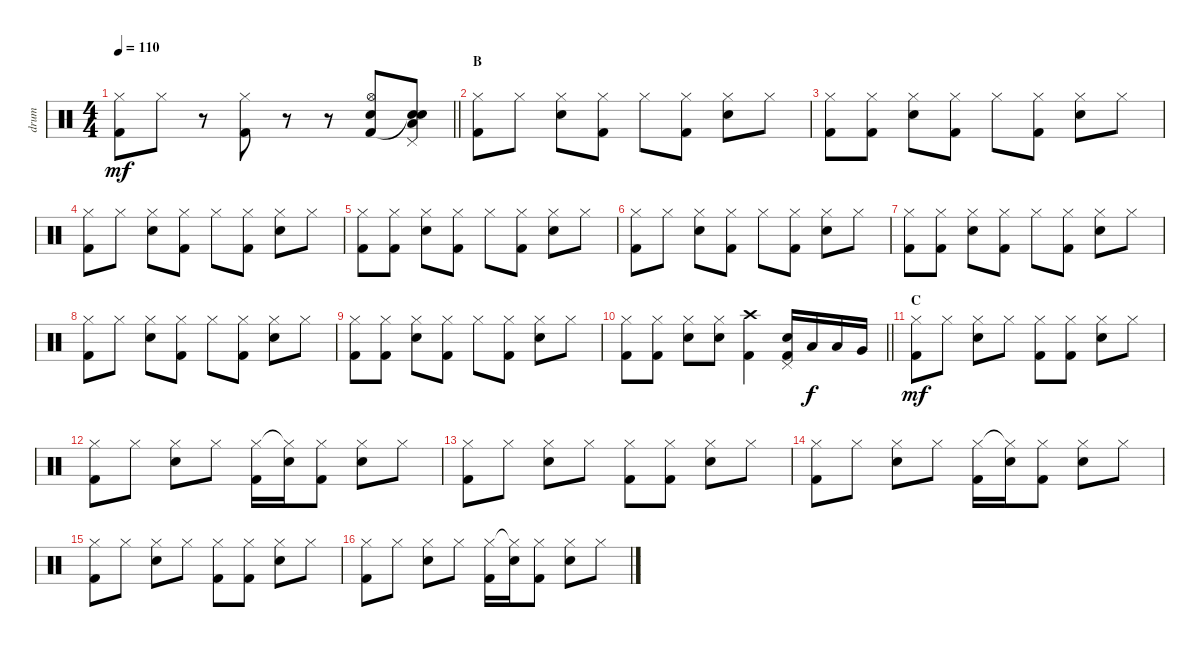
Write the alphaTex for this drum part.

\track ("drum" "drum") {instrument percussion}
\staff
\articulation defaults
\ts (4 4)
\tempo 110
\clef neutral
\barLineRight lightlight
\ks c
("Hi-Hat (closed)" "Kick (hit) 2").8{dy mf} "Hi-Hat (closed)".8 r.8 ("Hi-Hat (closed)" "Kick (hit) 2").8 r.8 r.8 ("Hi-Hat (open)" "Electric Snare (hit)" "Kick (hit) 2").8 ("Pedal Hi-Hat (hit)" "Low Floor Tom (hit)" "Snare (hit)"{t} "Snare (hit)").8 |
\section ("" "B")
("Hi-Hat (closed)" "Kick (hit) 2").8 "Hi-Hat (closed)".8 ("Hi-Hat (closed)" "Electric Snare (hit)").8 ("Hi-Hat (closed)" "Kick (hit) 2").8 "Hi-Hat (closed)".8 ("Hi-Hat (closed)" "Kick (hit) 2").8 ("Hi-Hat (closed)" "Electric Snare (hit)").8 "Hi-Hat (closed)".8 |
("Hi-Hat (closed)" "Kick (hit) 2").8 ("Hi-Hat (closed)" "Kick (hit) 2").8 ("Hi-Hat (closed)" "Electric Snare (hit)").8 ("Hi-Hat (closed)" "Kick (hit) 2").8 "Hi-Hat (closed)".8 ("Hi-Hat (closed)" "Kick (hit) 2").8 ("Hi-Hat (closed)" "Electric Snare (hit)").8 "Hi-Hat (closed)".8 |
("Hi-Hat (closed)" "Kick (hit) 2").8 "Hi-Hat (closed)".8 ("Hi-Hat (closed)" "Electric Snare (hit)").8 ("Hi-Hat (closed)" "Kick (hit) 2").8 "Hi-Hat (closed)".8 ("Hi-Hat (closed)" "Kick (hit) 2").8 ("Hi-Hat (closed)" "Electric Snare (hit)").8 "Hi-Hat (closed)".8 |
("Hi-Hat (closed)" "Kick (hit) 2").8 ("Hi-Hat (closed)" "Kick (hit) 2").8 ("Hi-Hat (closed)" "Electric Snare (hit)").8 ("Hi-Hat (closed)" "Kick (hit) 2").8 "Hi-Hat (closed)".8 ("Hi-Hat (closed)" "Kick (hit) 2").8 ("Hi-Hat (closed)" "Electric Snare (hit)").8 "Hi-Hat (closed)".8 |
("Hi-Hat (closed)" "Kick (hit) 2").8 "Hi-Hat (closed)".8 ("Hi-Hat (closed)" "Electric Snare (hit)").8 ("Hi-Hat (closed)" "Kick (hit) 2").8 "Hi-Hat (closed)".8 ("Hi-Hat (closed)" "Kick (hit) 2").8 ("Hi-Hat (closed)" "Electric Snare (hit)").8 "Hi-Hat (closed)".8 |
("Hi-Hat (closed)" "Kick (hit) 2").8 ("Hi-Hat (closed)" "Kick (hit) 2").8 ("Hi-Hat (closed)" "Electric Snare (hit)").8 ("Hi-Hat (closed)" "Kick (hit) 2").8 "Hi-Hat (closed)".8 ("Hi-Hat (closed)" "Kick (hit) 2").8 ("Hi-Hat (closed)" "Electric Snare (hit)").8 "Hi-Hat (closed)".8 |
("Hi-Hat (closed)" "Kick (hit) 2").8 "Hi-Hat (closed)".8 ("Hi-Hat (closed)" "Electric Snare (hit)").8 ("Hi-Hat (closed)" "Kick (hit) 2").8 "Hi-Hat (closed)".8 ("Hi-Hat (closed)" "Kick (hit) 2").8 ("Hi-Hat (closed)" "Electric Snare (hit)").8 "Hi-Hat (closed)".8 |
("Hi-Hat (closed)" "Kick (hit) 2").8 ("Hi-Hat (closed)" "Kick (hit) 2").8 ("Hi-Hat (closed)" "Electric Snare (hit)").8 ("Hi-Hat (closed)" "Kick (hit) 2").8 "Hi-Hat (closed)".8 ("Hi-Hat (closed)" "Kick (hit) 2").8 ("Hi-Hat (closed)" "Electric Snare (hit)").8 "Hi-Hat (closed)".8 |
\barLineRight lightlight
("Hi-Hat (closed)" "Kick (hit) 2").8 ("Hi-Hat (closed)" "Kick (hit) 2").8 ("Hi-Hat (closed)" "Electric Snare (hit)").8 ("Hi-Hat (closed)" "Electric Snare (hit)").8 ("Crash high (hit)" "Kick (hit) 2").4 ("Pedal Hi-Hat (hit)" "Electric Snare (hit)" "Kick (hit) 2").16 "Low Floor Tom (hit)".16{dy f} "Low Tom (hit)".16 "Very Low Tom (hit)".16 |
\section ("" "C")
("Hi-Hat (closed)" "Kick (hit) 2").8{dy mf} "Hi-Hat (closed)".8 ("Hi-Hat (closed)" "Electric Snare (hit)").8 "Hi-Hat (closed)".8 ("Hi-Hat (closed)" "Kick (hit) 2").8 ("Hi-Hat (closed)" "Kick (hit) 2").8 ("Hi-Hat (closed)" "Electric Snare (hit)").8 "Hi-Hat (closed)".8 |
("Hi-Hat (closed)" "Kick (hit) 2").8 "Hi-Hat (closed)".8 ("Hi-Hat (closed)" "Electric Snare (hit)").8 "Hi-Hat (closed)".8 ("Hi-Hat (closed)" "Kick (hit) 2").16 ("Hi-Hat (closed)"{t} "Electric Snare (hit)").16 ("Hi-Hat (closed)" "Kick (hit) 2").8 ("Hi-Hat (closed)" "Electric Snare (hit)").8 "Hi-Hat (closed)".8 |
("Hi-Hat (closed)" "Kick (hit) 2").8 "Hi-Hat (closed)".8 ("Hi-Hat (closed)" "Electric Snare (hit)").8 "Hi-Hat (closed)".8 ("Hi-Hat (closed)" "Kick (hit) 2").8 ("Hi-Hat (closed)" "Kick (hit) 2").8 ("Hi-Hat (closed)" "Electric Snare (hit)").8 "Hi-Hat (closed)".8 |
("Hi-Hat (closed)" "Kick (hit) 2").8 "Hi-Hat (closed)".8 ("Hi-Hat (closed)" "Electric Snare (hit)").8 "Hi-Hat (closed)".8 ("Hi-Hat (closed)" "Kick (hit) 2").16 ("Hi-Hat (closed)"{t} "Electric Snare (hit)").16 ("Hi-Hat (closed)" "Kick (hit) 2").8 ("Hi-Hat (closed)" "Electric Snare (hit)").8 "Hi-Hat (closed)".8 |
("Hi-Hat (closed)" "Kick (hit) 2").8 "Hi-Hat (closed)".8 ("Hi-Hat (closed)" "Electric Snare (hit)").8 "Hi-Hat (closed)".8 ("Hi-Hat (closed)" "Kick (hit) 2").8 ("Hi-Hat (closed)" "Kick (hit) 2").8 ("Hi-Hat (closed)" "Electric Snare (hit)").8 "Hi-Hat (closed)".8 |
("Hi-Hat (closed)" "Kick (hit) 2").8 "Hi-Hat (closed)".8 ("Hi-Hat (closed)" "Electric Snare (hit)").8 "Hi-Hat (closed)".8 ("Hi-Hat (closed)" "Kick (hit) 2").16 ("Hi-Hat (closed)"{t} "Electric Snare (hit)").16 ("Hi-Hat (closed)" "Kick (hit) 2").8 ("Hi-Hat (closed)" "Electric Snare (hit)").8 "Hi-Hat (closed)".8
